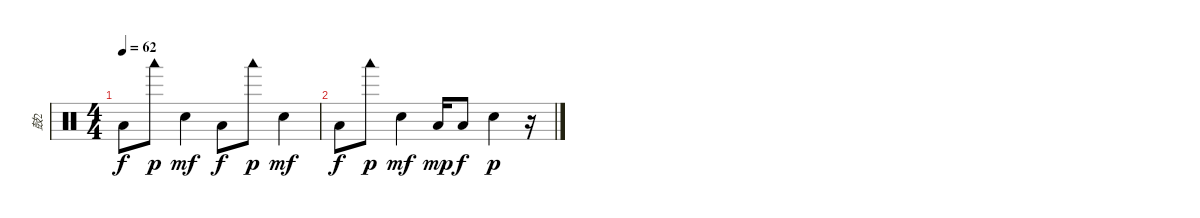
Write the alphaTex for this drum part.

\track ("鼓2" "鼓2") {instrument percussion}
\staff {score}
\articulation defaults
\ts (4 4)
\tempo 62
\clef neutral
\ks c "Low Floor Tom (hit)".8{dy f} "Woodblock low (hit)".8{dy p} "Electric Snare (hit)".4{dy mf} "Low Floor Tom (hit)".8{dy f} "Woodblock low (hit)".8{dy p} "Electric Snare (hit)".4{dy mf}
|
"Low Floor Tom (hit)".8{dy f} "Woodblock low (hit)".8{dy p} "Electric Snare (hit)".4{dy mf} "Low Tom (hit)".16{dy mp} "Low Floor Tom (hit)".8{dy f} "Electric Snare (hit)".4{dy p} r.16
